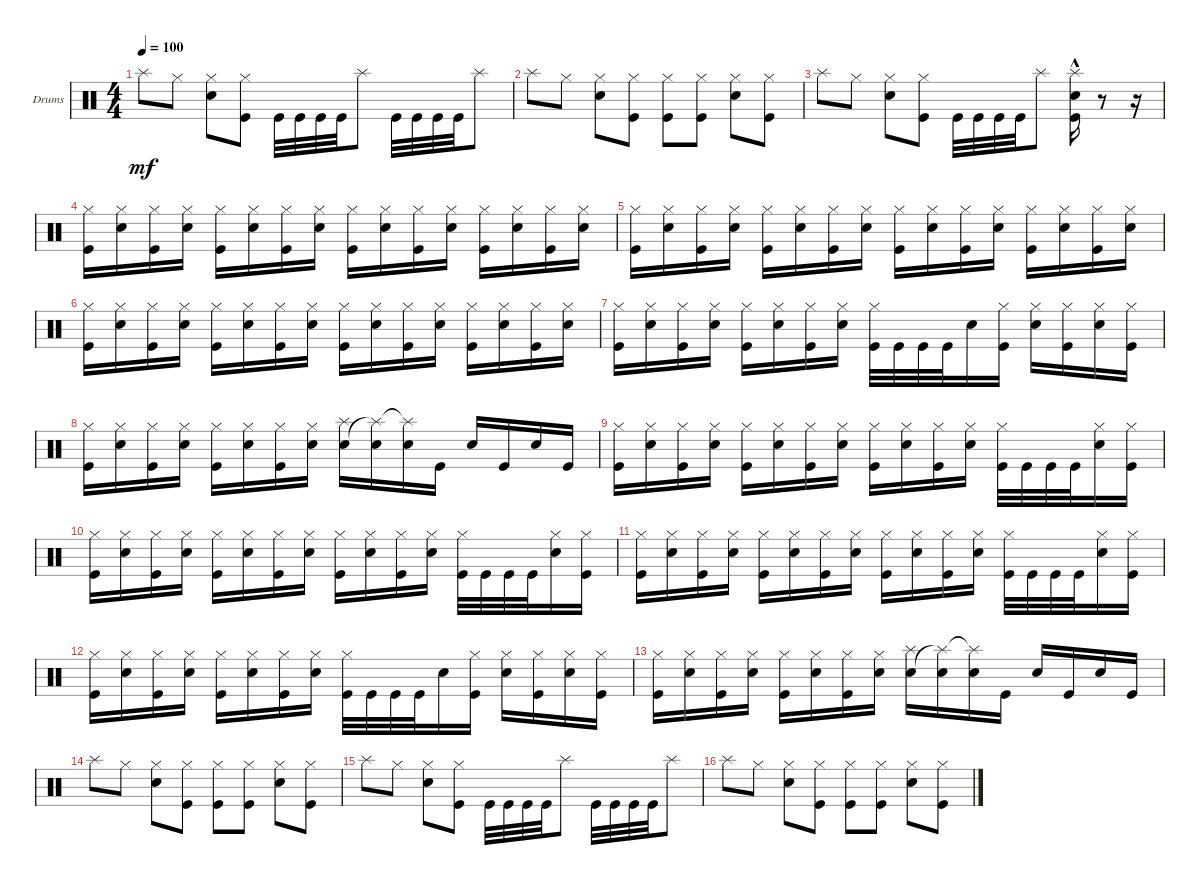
\defaultSystemsLayout 4
\bracketExtendMode groupsimilarinstruments
\firstSystemTrackNameOrientation horizontal
\otherSystemsTrackNameOrientation horizontal
\track ("Drumkit" "Drums") {instrument percussion}
\staff {score}
\articulation defaults
\ts (4 4)
\tempo 100
\clef neutral
\ks c "Splash (hit)".8{dy mf} "Hi-Hat (closed)".8
("Snare (hit) 2" "Hi-Hat (closed)").8 ("Kick (hit)" "Hi-Hat (closed)").8 "Kick (hit)".32 "Kick (hit)".32 "Kick (hit)".32 "Kick (hit)".32 "Splash (hit)".8 "Kick (hit)".32 "Kick (hit)".32 "Kick (hit)".32 "Kick (hit)".32 "Splash (hit)".8 |
"Splash (hit)".8 "Hi-Hat (closed)".8 ("Snare (hit) 2" "Hi-Hat (closed)").8 ("Kick (hit)" "Hi-Hat (closed)").8 ("Kick (hit)" "Hi-Hat (closed)").8 ("Kick (hit)" "Hi-Hat (closed)").8 ("Snare (hit) 2" "Hi-Hat (closed)").8 ("Kick (hit)" "Hi-Hat (closed)").8 |
"Splash (hit)".8 "Hi-Hat (closed)".8 ("Snare (hit) 2" "Hi-Hat (closed)").8 ("Kick (hit)" "Hi-Hat (closed)").8 "Kick (hit)".32 "Kick (hit)".32 "Kick (hit)".32 "Kick (hit)".32 "Splash (hit)".8 ("Splash (hit)"{hac} "Snare (hit) 2"{hac} "Kick (hit)"{hac}).16 r.8 r.16 |
("Kick (hit)" "Hi-Hat (closed)").16 ("Snare (hit) 2" "Hi-Hat (closed)").16 ("Kick (hit)" "Hi-Hat (closed)").16 ("Snare (hit) 2" "Hi-Hat (closed)").16 ("Kick (hit)" "Hi-Hat (closed)").16 ("Snare (hit) 2" "Hi-Hat (closed)").16 ("Kick (hit)" "Hi-Hat (closed)").16 ("Snare (hit) 2" "Hi-Hat (closed)").16 ("Kick (hit)" "Hi-Hat (closed)").16 ("Snare (hit) 2" "Hi-Hat (closed)").16 ("Kick (hit)" "Hi-Hat (closed)").16 ("Snare (hit) 2" "Hi-Hat (closed)").16 ("Kick (hit)" "Hi-Hat (closed)").16 ("Snare (hit) 2" "Hi-Hat (closed)").16 ("Kick (hit)" "Hi-Hat (closed)").16 ("Snare (hit) 2" "Hi-Hat (closed)").16 |
("Kick (hit)" "Hi-Hat (closed)").16 ("Snare (hit) 2" "Hi-Hat (closed)").16 ("Kick (hit)" "Hi-Hat (closed)").16 ("Snare (hit) 2" "Hi-Hat (closed)").16 ("Kick (hit)" "Hi-Hat (closed)").16 ("Snare (hit) 2" "Hi-Hat (closed)").16 ("Kick (hit)" "Hi-Hat (closed)").16 ("Snare (hit) 2" "Hi-Hat (closed)").16 ("Kick (hit)" "Hi-Hat (closed)").16 ("Snare (hit) 2" "Hi-Hat (closed)").16 ("Kick (hit)" "Hi-Hat (closed)").16 ("Snare (hit) 2" "Hi-Hat (closed)").16 ("Kick (hit)" "Hi-Hat (closed)").16 ("Snare (hit) 2" "Hi-Hat (closed)").16 ("Kick (hit)" "Hi-Hat (closed)").16 ("Snare (hit) 2" "Hi-Hat (closed)").16 |
("Kick (hit)" "Hi-Hat (closed)").16 ("Snare (hit) 2" "Hi-Hat (closed)").16 ("Kick (hit)" "Hi-Hat (closed)").16 ("Snare (hit) 2" "Hi-Hat (closed)").16 ("Kick (hit)" "Hi-Hat (closed)").16 ("Snare (hit) 2" "Hi-Hat (closed)").16 ("Kick (hit)" "Hi-Hat (closed)").16 ("Snare (hit) 2" "Hi-Hat (closed)").16 ("Kick (hit)" "Hi-Hat (closed)").16 ("Snare (hit) 2" "Hi-Hat (closed)").16 ("Kick (hit)" "Hi-Hat (closed)").16 ("Snare (hit) 2" "Hi-Hat (closed)").16 ("Kick (hit)" "Hi-Hat (closed)").16 ("Snare (hit) 2" "Hi-Hat (closed)").16 ("Kick (hit)" "Hi-Hat (closed)").16 ("Snare (hit) 2" "Hi-Hat (closed)").16 |
("Kick (hit)" "Hi-Hat (closed)").16 ("Snare (hit) 2" "Hi-Hat (closed)").16 ("Kick (hit)" "Hi-Hat (closed)").16 ("Snare (hit) 2" "Hi-Hat (closed)").16 ("Kick (hit)" "Hi-Hat (closed)").16 ("Snare (hit) 2" "Hi-Hat (closed)").16 ("Kick (hit)" "Hi-Hat (closed)").16 ("Snare (hit) 2" "Hi-Hat (closed)").16 ("Kick (hit)" "Hi-Hat (closed)").32 "Kick (hit)".32 "Kick (hit)".32 "Kick (hit)".32 "Snare (hit) 2".16 ("Kick (hit)" "Hi-Hat (closed)").16 ("Snare (hit) 2" "Hi-Hat (closed)").16 ("Kick (hit)" "Hi-Hat (closed)").16 ("Snare (hit) 2" "Hi-Hat (closed)").16 ("Kick (hit)" "Hi-Hat (closed)").16 |
("Kick (hit)" "Hi-Hat (closed)").16 ("Snare (hit) 2" "Hi-Hat (closed)").16 ("Kick (hit)" "Hi-Hat (closed)").16 ("Snare (hit) 2" "Hi-Hat (closed)").16 ("Kick (hit)" "Hi-Hat (closed)").16 ("Snare (hit) 2" "Hi-Hat (closed)").16 ("Kick (hit)" "Hi-Hat (closed)").16 ("Snare (hit) 2" "Hi-Hat (closed)").16 ("Splash (hit)" "Snare (hit) 2").16 ("Snare (hit) 2" "Splash (hit)"{t}).16 ("Snare (hit) 2" "Splash (hit)"{t}).16 "Kick (hit)".16 "Snare (hit) 2".16 "Kick (hit)".16 "Snare (hit) 2".16 "Kick (hit)".16 |
("Kick (hit)" "Hi-Hat (closed)").16 ("Snare (hit) 2" "Hi-Hat (closed)").16 ("Kick (hit)" "Hi-Hat (closed)").16 ("Snare (hit) 2" "Hi-Hat (closed)").16 ("Kick (hit)" "Hi-Hat (closed)").16 ("Snare (hit) 2" "Hi-Hat (closed)").16 ("Kick (hit)" "Hi-Hat (closed)").16 ("Snare (hit) 2" "Hi-Hat (closed)").16 ("Kick (hit)" "Hi-Hat (closed)").16 ("Snare (hit) 2" "Hi-Hat (closed)").16 ("Kick (hit)" "Hi-Hat (closed)").16 ("Snare (hit) 2" "Hi-Hat (closed)").16 ("Kick (hit)" "Hi-Hat (closed)").32 "Kick (hit)".32 "Kick (hit)".32 "Kick (hit)".32 ("Hi-Hat (closed)" "Snare (hit) 2").16 ("Hi-Hat (closed)" "Kick (hit)").16 |
("Kick (hit)" "Hi-Hat (closed)").16 ("Snare (hit) 2" "Hi-Hat (closed)").16 ("Kick (hit)" "Hi-Hat (closed)").16 ("Snare (hit) 2" "Hi-Hat (closed)").16 ("Kick (hit)" "Hi-Hat (closed)").16 ("Snare (hit) 2" "Hi-Hat (closed)").16 ("Kick (hit)" "Hi-Hat (closed)").16 ("Snare (hit) 2" "Hi-Hat (closed)").16 ("Kick (hit)" "Hi-Hat (closed)").16 ("Snare (hit) 2" "Hi-Hat (closed)").16 ("Kick (hit)" "Hi-Hat (closed)").16 ("Snare (hit) 2" "Hi-Hat (closed)").16 ("Kick (hit)" "Hi-Hat (closed)").32 "Kick (hit)".32 "Kick (hit)".32 "Kick (hit)".32 ("Hi-Hat (closed)" "Snare (hit) 2").16 ("Hi-Hat (closed)" "Kick (hit)").16 |
("Kick (hit)" "Hi-Hat (closed)").16 ("Snare (hit) 2" "Hi-Hat (closed)").16 ("Kick (hit)" "Hi-Hat (closed)").16 ("Snare (hit) 2" "Hi-Hat (closed)").16 ("Kick (hit)" "Hi-Hat (closed)").16 ("Snare (hit) 2" "Hi-Hat (closed)").16 ("Kick (hit)" "Hi-Hat (closed)").16 ("Snare (hit) 2" "Hi-Hat (closed)").16 ("Kick (hit)" "Hi-Hat (closed)").16 ("Snare (hit) 2" "Hi-Hat (closed)").16 ("Kick (hit)" "Hi-Hat (closed)").16 ("Snare (hit) 2" "Hi-Hat (closed)").16 ("Kick (hit)" "Hi-Hat (closed)").32 "Kick (hit)".32 "Kick (hit)".32 "Kick (hit)".32 ("Hi-Hat (closed)" "Snare (hit) 2").16 ("Hi-Hat (closed)" "Kick (hit)").16 |
("Kick (hit)" "Hi-Hat (closed)").16 ("Snare (hit) 2" "Hi-Hat (closed)").16 ("Kick (hit)" "Hi-Hat (closed)").16 ("Snare (hit) 2" "Hi-Hat (closed)").16 ("Kick (hit)" "Hi-Hat (closed)").16 ("Snare (hit) 2" "Hi-Hat (closed)").16 ("Kick (hit)" "Hi-Hat (closed)").16 ("Snare (hit) 2" "Hi-Hat (closed)").16 ("Kick (hit)" "Hi-Hat (closed)").32 "Kick (hit)".32 "Kick (hit)".32 "Kick (hit)".32 "Snare (hit) 2".16 ("Kick (hit)" "Hi-Hat (closed)").16 ("Snare (hit) 2" "Hi-Hat (closed)").16 ("Kick (hit)" "Hi-Hat (closed)").16 ("Snare (hit) 2" "Hi-Hat (closed)").16 ("Kick (hit)" "Hi-Hat (closed)").16 |
("Kick (hit)" "Hi-Hat (closed)").16 ("Snare (hit) 2" "Hi-Hat (closed)").16 ("Kick (hit)" "Hi-Hat (closed)").16 ("Snare (hit) 2" "Hi-Hat (closed)").16 ("Kick (hit)" "Hi-Hat (closed)").16 ("Snare (hit) 2" "Hi-Hat (closed)").16 ("Kick (hit)" "Hi-Hat (closed)").16 ("Snare (hit) 2" "Hi-Hat (closed)").16 ("Splash (hit)" "Snare (hit) 2").16 ("Snare (hit) 2" "Splash (hit)"{t}).16 ("Snare (hit) 2" "Splash (hit)"{t}).16 "Kick (hit)".16 "Snare (hit) 2".16 "Kick (hit)".16 "Snare (hit) 2".16 "Kick (hit)".16 |
"Splash (hit)".8 "Hi-Hat (closed)".8 ("Snare (hit) 2" "Hi-Hat (closed)").8 ("Kick (hit)" "Hi-Hat (closed)").8 ("Kick (hit)" "Hi-Hat (closed)").8 ("Kick (hit)" "Hi-Hat (closed)").8 ("Snare (hit) 2" "Hi-Hat (closed)").8 ("Kick (hit)" "Hi-Hat (closed)").8 |
"Splash (hit)".8 "Hi-Hat (closed)".8 ("Snare (hit) 2" "Hi-Hat (closed)").8 ("Kick (hit)" "Hi-Hat (closed)").8 "Kick (hit)".32 "Kick (hit)".32 "Kick (hit)".32 "Kick (hit)".32 "Splash (hit)".8 "Kick (hit)".32 "Kick (hit)".32 "Kick (hit)".32 "Kick (hit)".32 "Splash (hit)".8 |
"Splash (hit)".8 "Hi-Hat (closed)".8 ("Snare (hit) 2" "Hi-Hat (closed)").8 ("Kick (hit)" "Hi-Hat (closed)").8 ("Kick (hit)" "Hi-Hat (closed)").8 ("Kick (hit)" "Hi-Hat (closed)").8 ("Snare (hit) 2" "Hi-Hat (closed)").8 ("Kick (hit)" "Hi-Hat (closed)").8
